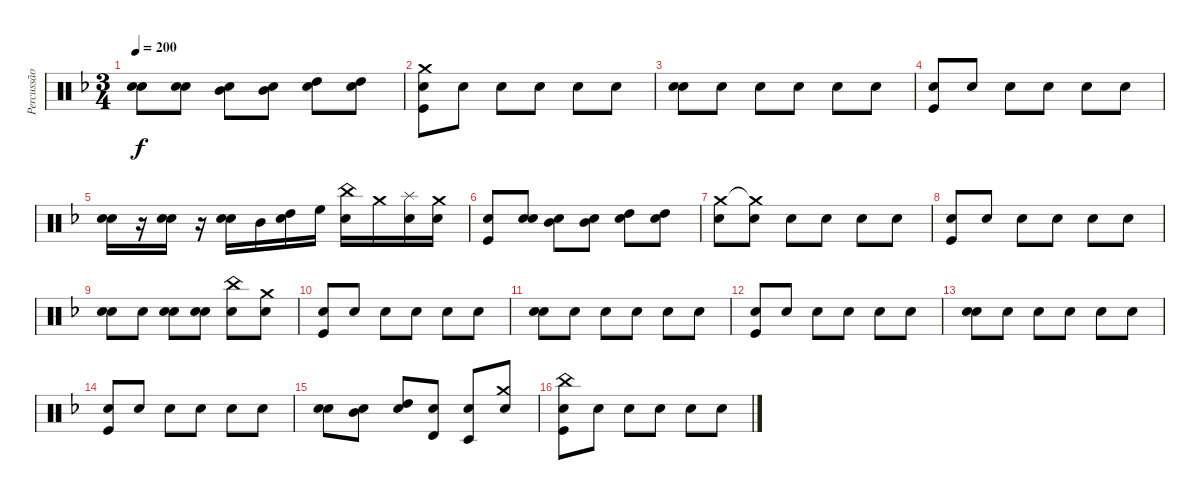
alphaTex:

\track ("Percussão" "Percussão") {instrument percussion}
\staff {score}
\articulation defaults
\ts (3 4)
\tempo 200
\clef neutral
\ks dminor
("Hand Clap (hit)" "Snare (hit) 2").8{dy f} ("Hand Clap (hit)" "Snare (hit) 2").8 ("Hand Clap (hit)" "Mid Tom (hit)").8 ("Hand Clap (hit)" "Mid Tom (hit)").8 ("Hand Clap (hit)" "High Tom (hit)").8 ("Hand Clap (hit)" "High Tom (hit)").8 |
("Hand Clap (hit)" "Kick (hit)" "Crash medium (hit)").8 "Hand Clap (hit)".8 "Hand Clap (hit)".8 "Hand Clap (hit)".8 "Hand Clap (hit)".8 "Hand Clap (hit)".8 |
("Hand Clap (hit)" "Snare (hit) 2").8 "Hand Clap (hit)".8 "Hand Clap (hit)".8 "Hand Clap (hit)".8 "Hand Clap (hit)".8 "Hand Clap (hit)".8 |
("Hand Clap (hit)" "Kick (hit)").8 "Hand Clap (hit)".8 "Hand Clap (hit)".8 "Hand Clap (hit)".8 "Hand Clap (hit)".8 "Hand Clap (hit)".8 |
("Hand Clap (hit)" "Snare (hit) 2").16 r.16 ("Hand Clap (hit)" "Snare (hit) 2").16 r.16 ("Hand Clap (hit)" "Snare (hit) 2").16 "Mid Tom (hit)".16 ("Hand Clap (hit)" "High Tom (hit)").16 "High Floor Tom (hit)".16 ("Hand Clap (hit)" "China (hit)").16 "Crash medium (hit)".16 ("Hand Clap (hit)" "Splash (hit)").16 ("Hand Clap (hit)" "Crash medium (hit)").16 |
("Hand Clap (hit)" "Kick (hit)").8 ("Hand Clap (hit)" "Snare (hit) 2").8 ("Hand Clap (hit)" "Mid Tom (hit)").8 ("Hand Clap (hit)" "Mid Tom (hit)").8 ("Hand Clap (hit)" "High Tom (hit)").8 ("Hand Clap (hit)" "High Tom (hit)").8 |
("Hand Clap (hit)" "Crash medium (hit)").8 ("Hand Clap (hit)" "Crash medium (hit)"{t}).8 "Hand Clap (hit)".8 "Hand Clap (hit)".8 "Hand Clap (hit)".8 "Hand Clap (hit)".8 |
("Hand Clap (hit)" "Kick (hit)").8 "Hand Clap (hit)".8 "Hand Clap (hit)".8 "Hand Clap (hit)".8 "Hand Clap (hit)".8 "Hand Clap (hit)".8 |
("Hand Clap (hit)" "Snare (hit) 2").8 "Hand Clap (hit)".8 ("Hand Clap (hit)" "Snare (hit) 2").8 ("Hand Clap (hit)" "Snare (hit) 2").8 ("Hand Clap (hit)" "China (hit)").8 ("Hand Clap (hit)" "Crash medium (hit)").8 |
("Hand Clap (hit)" "Kick (hit)").8 "Hand Clap (hit)".8 "Hand Clap (hit)".8 "Hand Clap (hit)".8 "Hand Clap (hit)".8 "Hand Clap (hit)".8 |
("Hand Clap (hit)" "Snare (hit) 2").8 "Hand Clap (hit)".8 "Hand Clap (hit)".8 "Hand Clap (hit)".8 "Hand Clap (hit)".8 "Hand Clap (hit)".8 |
("Hand Clap (hit)" "Kick (hit)").8 "Hand Clap (hit)".8 "Hand Clap (hit)".8 "Hand Clap (hit)".8 "Hand Clap (hit)".8 "Hand Clap (hit)".8 |
("Hand Clap (hit)" "Snare (hit) 2").8 "Hand Clap (hit)".8 "Hand Clap (hit)".8 "Hand Clap (hit)".8 "Hand Clap (hit)".8 "Hand Clap (hit)".8 |
("Hand Clap (hit)" "Kick (hit)").8 "Hand Clap (hit)".8 "Hand Clap (hit)".8 "Hand Clap (hit)".8 "Hand Clap (hit)".8 "Hand Clap (hit)".8 |
("Hand Clap (hit)" "Snare (hit) 2").8 ("Hand Clap (hit)" "Mid Tom (hit)").8 ("Hand Clap (hit)" "High Tom (hit)").8 ("Hand Clap (hit)" "Timbale high (hit)").8 ("Hand Clap (hit)" "Timbale low (hit)").8 ("Hand Clap (hit)" "Crash medium (hit)").8 |
("Hand Clap (hit)" "Kick (hit)" "China (hit)").8 "Hand Clap (hit)".8 "Hand Clap (hit)".8 "Hand Clap (hit)".8 "Hand Clap (hit)".8 "Hand Clap (hit)".8
